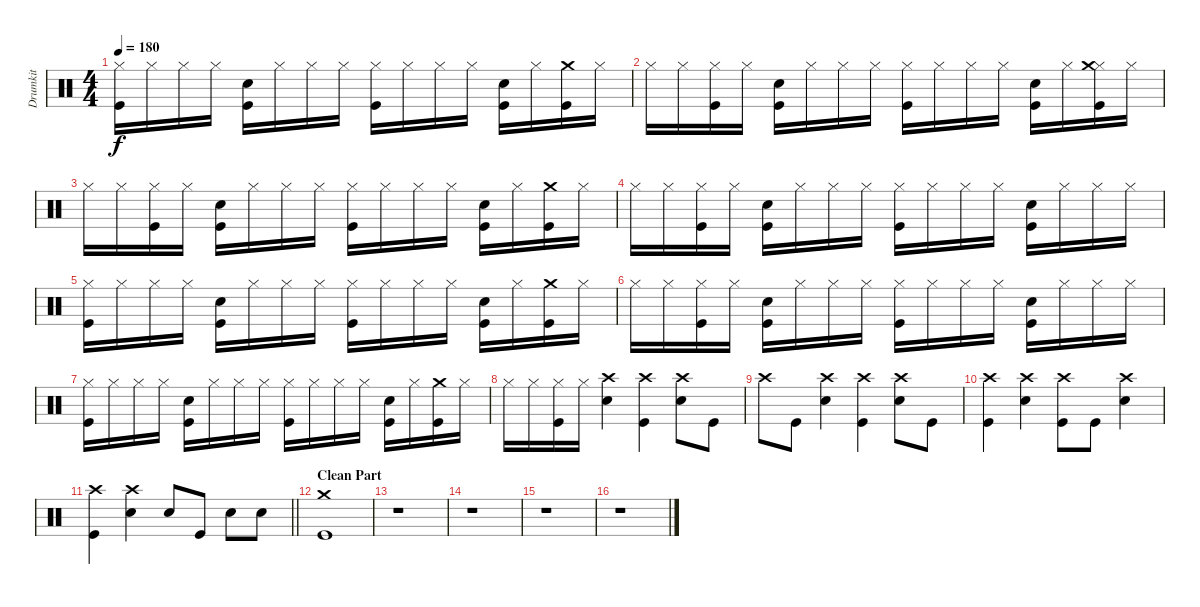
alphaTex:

\track ("Drumkit" "Drumkit") {instrument percussion}
\staff {score}
\articulation defaults
\ts (4 4)
\tempo 180
\clef neutral
\ks c
("Hi-Hat (closed)" "Kick (hit)").16{dy f} "Hi-Hat (closed)".16 "Hi-Hat (closed)".16 "Hi-Hat (closed)".16 ("Snare (hit) 2" "Kick (hit)").16 "Hi-Hat (closed)".16 "Hi-Hat (closed)".16 "Hi-Hat (closed)".16 ("Hi-Hat (closed)" "Kick (hit)").16 "Hi-Hat (closed)".16 "Hi-Hat (closed)".16 "Hi-Hat (closed)".16 ("Snare (hit) 2" "Kick (hit)").16 "Hi-Hat (closed)".16 ("Crash medium (hit)" "Kick (hit)").16 "Hi-Hat (closed)".16 |
"Hi-Hat (closed)".16 "Hi-Hat (closed)".16 ("Hi-Hat (closed)" "Kick (hit)").16 "Hi-Hat (closed)".16 ("Snare (hit) 2" "Kick (hit)").16 "Hi-Hat (closed)".16 "Hi-Hat (closed)".16 "Hi-Hat (closed)".16 ("Hi-Hat (closed)" "Kick (hit)").16 "Hi-Hat (closed)".16 "Hi-Hat (closed)".16 "Hi-Hat (closed)".16 ("Snare (hit) 2" "Kick (hit)").16 "Hi-Hat (closed)".16 ("Kick (hit)" "Hi-Hat (closed)" "Crash medium (hit)").16 "Hi-Hat (closed)".16 |
"Hi-Hat (closed)".16 "Hi-Hat (closed)".16 ("Hi-Hat (closed)" "Kick (hit)").16 "Hi-Hat (closed)".16 ("Snare (hit) 2" "Kick (hit)").16 "Hi-Hat (closed)".16 "Hi-Hat (closed)".16 "Hi-Hat (closed)".16 ("Hi-Hat (closed)" "Kick (hit)").16 "Hi-Hat (closed)".16 "Hi-Hat (closed)".16 "Hi-Hat (closed)".16 ("Snare (hit) 2" "Kick (hit)").16 "Hi-Hat (closed)".16 ("Crash medium (hit)" "Kick (hit)").16 "Hi-Hat (closed)".16 |
"Hi-Hat (closed)".16 "Hi-Hat (closed)".16 ("Hi-Hat (closed)" "Kick (hit)").16 "Hi-Hat (closed)".16 ("Snare (hit) 2" "Kick (hit)").16 "Hi-Hat (closed)".16 "Hi-Hat (closed)".16 "Hi-Hat (closed)".16 ("Hi-Hat (closed)" "Kick (hit)").16 "Hi-Hat (closed)".16 "Hi-Hat (closed)".16 "Hi-Hat (closed)".16 ("Snare (hit) 2" "Kick (hit)").16 "Hi-Hat (closed)".16 "Hi-Hat (closed)".16 "Hi-Hat (closed)".16 |
("Hi-Hat (closed)" "Kick (hit)").16 "Hi-Hat (closed)".16 "Hi-Hat (closed)".16 "Hi-Hat (closed)".16 ("Snare (hit) 2" "Kick (hit)").16 "Hi-Hat (closed)".16 "Hi-Hat (closed)".16 "Hi-Hat (closed)".16 ("Hi-Hat (closed)" "Kick (hit)").16 "Hi-Hat (closed)".16 "Hi-Hat (closed)".16 "Hi-Hat (closed)".16 ("Snare (hit) 2" "Kick (hit)").16 "Hi-Hat (closed)".16 ("Crash medium (hit)" "Kick (hit)").16 "Hi-Hat (closed)".16 |
"Hi-Hat (closed)".16 "Hi-Hat (closed)".16 ("Hi-Hat (closed)" "Kick (hit)").16 "Hi-Hat (closed)".16 ("Snare (hit) 2" "Kick (hit)").16 "Hi-Hat (closed)".16 "Hi-Hat (closed)".16 "Hi-Hat (closed)".16 ("Hi-Hat (closed)" "Kick (hit)").16 "Hi-Hat (closed)".16 "Hi-Hat (closed)".16 "Hi-Hat (closed)".16 ("Snare (hit) 2" "Kick (hit)").16 "Hi-Hat (closed)".16 "Hi-Hat (closed)".16 "Hi-Hat (closed)".16 |
("Hi-Hat (closed)" "Kick (hit)").16 "Hi-Hat (closed)".16 "Hi-Hat (closed)".16 "Hi-Hat (closed)".16 ("Snare (hit) 2" "Kick (hit)").16 "Hi-Hat (closed)".16 "Hi-Hat (closed)".16 "Hi-Hat (closed)".16 ("Hi-Hat (closed)" "Kick (hit)").16 "Hi-Hat (closed)".16 "Hi-Hat (closed)".16 "Hi-Hat (closed)".16 ("Snare (hit) 2" "Kick (hit)").16 "Hi-Hat (closed)".16 ("Crash medium (hit)" "Kick (hit)").16 "Hi-Hat (closed)".16 |
"Hi-Hat (closed)".16 "Hi-Hat (closed)".16 ("Hi-Hat (closed)" "Kick (hit)").16 "Hi-Hat (closed)".16 ("Crash high (hit)" "Snare (hit) 2").4 ("Crash high (hit)" "Kick (hit)").4 ("Crash high (hit)" "Snare (hit) 2").8 "Kick (hit)".8 |
"Crash high (hit)".8 "Kick (hit)".8 ("Crash high (hit)" "Snare (hit) 2").4 ("Crash high (hit)" "Kick (hit)").4 ("Crash high (hit)" "Snare (hit) 2").8 "Kick (hit)".8 |
("Crash high (hit)" "Kick (hit)").4 ("Crash high (hit)" "Snare (hit) 2").4 ("Crash high (hit)" "Kick (hit)").8 "Kick (hit)".8 ("Crash high (hit)" "Snare (hit) 2").4 |
\barLineRight lightlight
("Crash high (hit)" "Kick (hit)").4 ("Crash high (hit)" "Snare (hit) 2").4 "Snare (hit) 2".8 "Kick (hit)".8 "Snare (hit) 2".8 "Snare (hit) 2".8 |
\section ("" "Clean Part")
("Crash medium (hit)" "Kick (hit)").1 |
r.1 |
r.1 |
r.1 |
r.1
